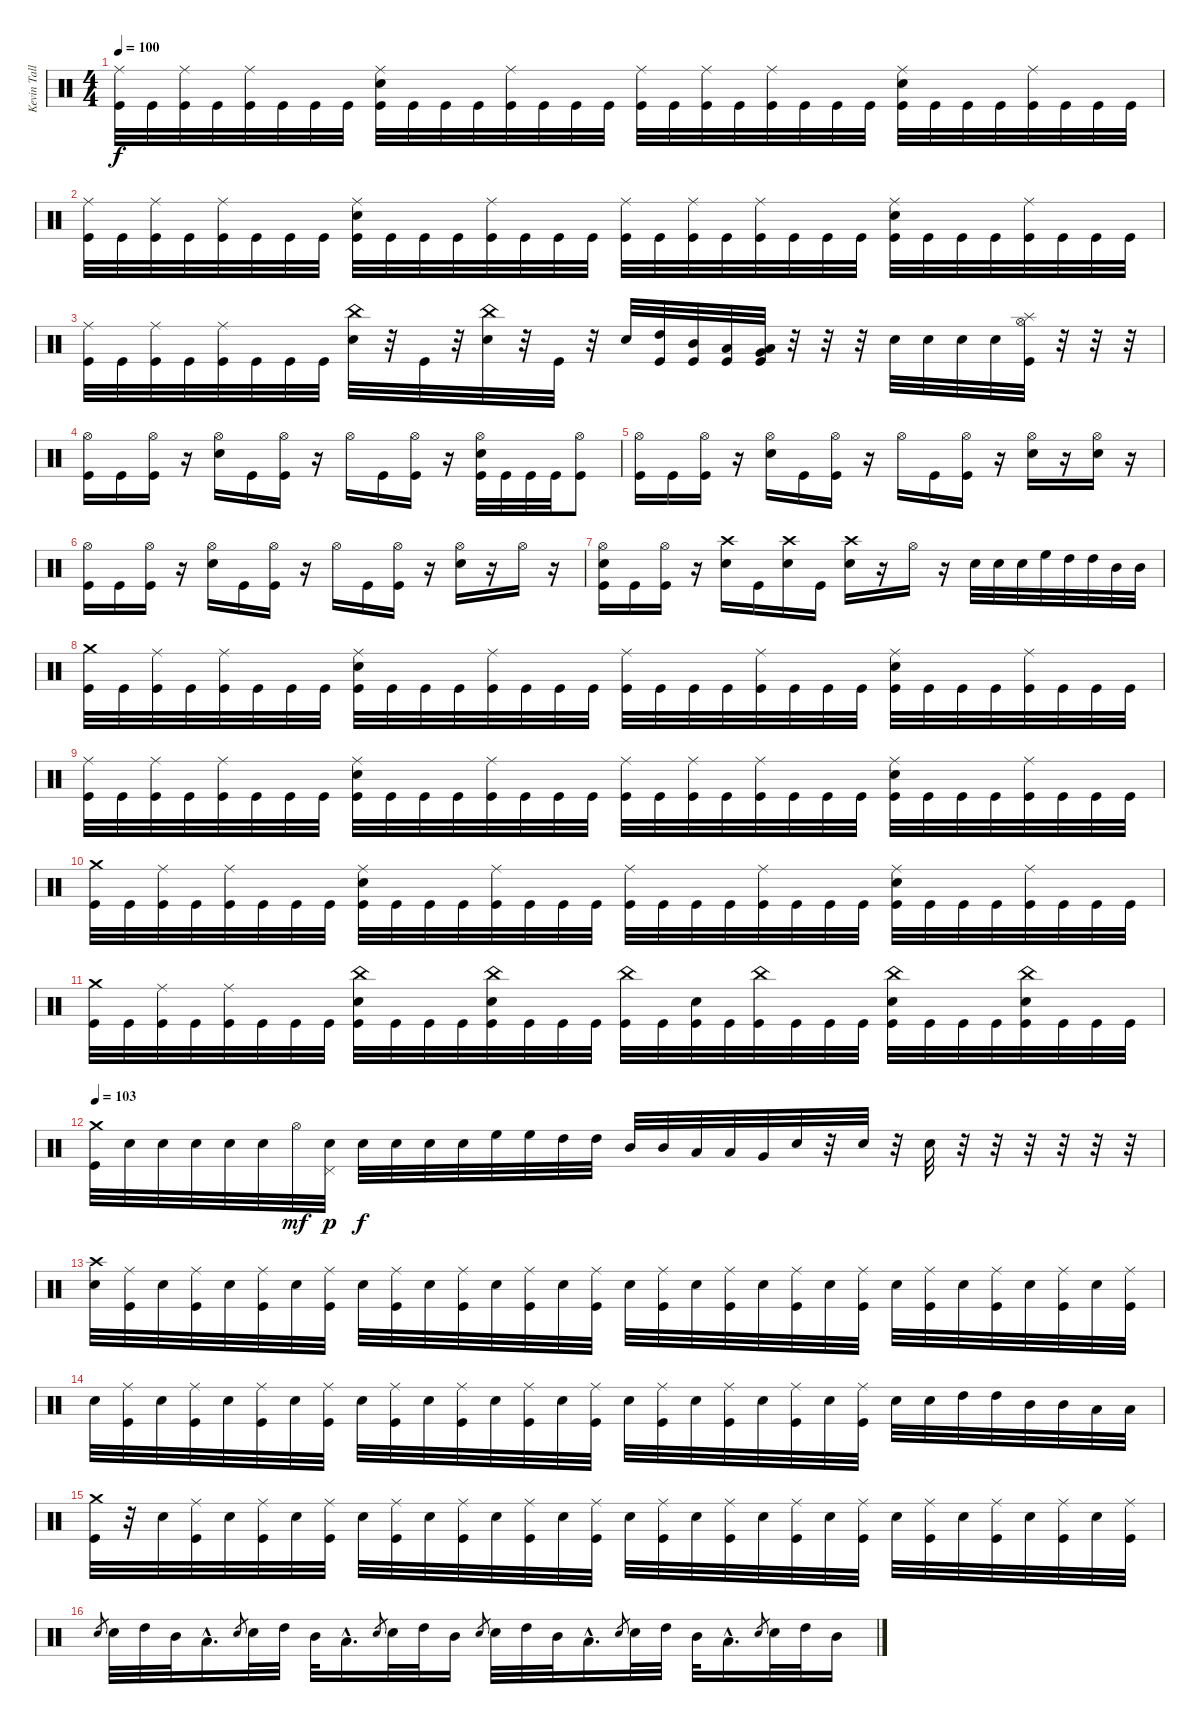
\track ("Kevin Talley" "Kevin Tall") {instrument percussion}
\staff {score}
\articulation defaults
\ts (4 4)
\tempo 100
\clef neutral
\ks c
("Ride (middle)" "Kick (hit)").32{dy f} "Kick (hit)".32 ("Ride (middle)" "Kick (hit)").32 "Kick (hit)".32 ("Ride (middle)" "Kick (hit)").32 "Kick (hit)".32 "Kick (hit)".32 "Kick (hit)".32 ("Ride (middle)" "Electric Snare (hit)" "Kick (hit)").32 "Kick (hit)".32 "Kick (hit)".32 "Kick (hit)".32 ("Ride (middle)" "Kick (hit)").32 "Kick (hit)".32 "Kick (hit)".32 "Kick (hit)".32 ("Ride (middle)" "Kick (hit)").32 "Kick (hit)".32 ("Ride (middle)" "Kick (hit)").32 "Kick (hit)".32 ("Ride (middle)" "Kick (hit)").32 "Kick (hit)".32 "Kick (hit)".32 "Kick (hit)".32 ("Ride (middle)" "Electric Snare (hit)" "Kick (hit)").32 "Kick (hit)".32 "Kick (hit)".32 "Kick (hit)".32 ("Ride (middle)" "Kick (hit)").32 "Kick (hit)".32 "Kick (hit)".32 "Kick (hit)".32 |
("Ride (middle)" "Kick (hit)").32 "Kick (hit)".32 ("Ride (middle)" "Kick (hit)").32 "Kick (hit)".32 ("Ride (middle)" "Kick (hit)").32 "Kick (hit)".32 "Kick (hit)".32 "Kick (hit)".32 ("Ride (middle)" "Electric Snare (hit)" "Kick (hit)").32 "Kick (hit)".32 "Kick (hit)".32 "Kick (hit)".32 ("Ride (middle)" "Kick (hit)").32 "Kick (hit)".32 "Kick (hit)".32 "Kick (hit)".32 ("Ride (middle)" "Kick (hit)").32 "Kick (hit)".32 ("Ride (middle)" "Kick (hit)").32 "Kick (hit)".32 ("Ride (middle)" "Kick (hit)").32 "Kick (hit)".32 "Kick (hit)".32 "Kick (hit)".32 ("Ride (middle)" "Electric Snare (hit)" "Kick (hit)").32 "Kick (hit)".32 "Kick (hit)".32 "Kick (hit)".32 ("Ride (middle)" "Kick (hit)").32 "Kick (hit)".32 "Kick (hit)".32 "Kick (hit)".32 |
("Ride (middle)" "Kick (hit)").32 "Kick (hit)".32 ("Ride (middle)" "Kick (hit)").32 "Kick (hit)".32 ("Ride (middle)" "Kick (hit)").32 "Kick (hit)".32 "Kick (hit)".32 "Kick (hit)".32 ("China (hit)" "Electric Snare (hit)").32 r.32 "Kick (hit)".32 r.32 ("China (hit)" "Electric Snare (hit)").32 r.32 "Kick (hit)".32 r.32 "Electric Snare (hit)".32 ("High Tom (hit)" "Kick (hit)").32 ("Mid Tom (hit)" "Kick (hit)").32 ("Low Tom (hit)" "Kick (hit)").32 ("Low Tom (hit)" "Very Low Tom (hit)" "Kick (hit)").32 r.32 r.32 r.32 "Electric Snare (hit)".32 "Electric Snare (hit)".32 "Electric Snare (hit)".32 "Electric Snare (hit)".32 ("Splash (hit)" "Hi-Hat (open)" "Kick (hit)").32 r.32 r.32 r.32 |
("Hi-Hat (open)" "Kick (hit)").16 "Kick (hit)".16 ("Hi-Hat (open)" "Kick (hit)").16 r.16 ("Hi-Hat (open)" "Electric Snare (hit)").16 "Kick (hit)".16 ("Hi-Hat (open)" "Kick (hit)").16 r.16 "Hi-Hat (open)".16 "Kick (hit)".16 ("Hi-Hat (open)" "Kick (hit)").16 r.16 ("Hi-Hat (open)" "Electric Snare (hit)" "Kick (hit)").32 "Kick (hit)".32 "Kick (hit)".32 "Kick (hit)".32 ("Hi-Hat (open)" "Kick (hit)").8 |
("Hi-Hat (open)" "Kick (hit)").16 "Kick (hit)".16 ("Hi-Hat (open)" "Kick (hit)").16 r.16 ("Hi-Hat (open)" "Electric Snare (hit)").16 "Kick (hit)".16 ("Hi-Hat (open)" "Kick (hit)").16 r.16 "Hi-Hat (open)".16 "Kick (hit)".16 ("Hi-Hat (open)" "Kick (hit)").16 r.16 ("Hi-Hat (open)" "Electric Snare (hit)").16 r.16 ("Hi-Hat (open)" "Electric Snare (hit)").16 r.16 |
("Hi-Hat (open)" "Kick (hit)").16 "Kick (hit)".16 ("Hi-Hat (open)" "Kick (hit)").16 r.16 ("Hi-Hat (open)" "Electric Snare (hit)").16 "Kick (hit)".16 ("Hi-Hat (open)" "Kick (hit)").16 r.16 "Hi-Hat (open)".16 "Kick (hit)".16 ("Hi-Hat (open)" "Kick (hit)").16 r.16 ("Hi-Hat (open)" "Electric Snare (hit)").16 r.16 "Hi-Hat (open)".16 r.16 |
("Hi-Hat (open)" "Electric Snare (hit)" "Kick (hit)").16 "Kick (hit)".16 ("Hi-Hat (open)" "Kick (hit)").16 r.16 ("Crash high (hit)" "Electric Snare (hit)").16 "Kick (hit)".16 ("Crash high (hit)" "Electric Snare (hit)").16 "Kick (hit)".16 ("Crash high (hit)" "Electric Snare (hit)").16 r.16 "Hi-Hat (open)".16 r.16 "Electric Snare (hit)".32 "Electric Snare (hit)".32 "Electric Snare (hit)".32 "High Floor Tom (hit)".32 "High Tom (hit)".32 "High Tom (hit)".32 "Mid Tom (hit)".32 "Mid Tom (hit)".32 |
("Crash medium (hit)" "Kick (hit)").32 "Kick (hit)".32 ("Ride (middle)" "Kick (hit)").32 "Kick (hit)".32 ("Ride (middle)" "Kick (hit)").32 "Kick (hit)".32 "Kick (hit)".32 "Kick (hit)".32 ("Ride (middle)" "Electric Snare (hit)" "Kick (hit)").32 "Kick (hit)".32 "Kick (hit)".32 "Kick (hit)".32 ("Ride (middle)" "Kick (hit)").32 "Kick (hit)".32 "Kick (hit)".32 "Kick (hit)".32 ("Ride (middle)" "Kick (hit)").32 "Kick (hit)".32 "Kick (hit)".32 "Kick (hit)".32 ("Ride (middle)" "Kick (hit)").32 "Kick (hit)".32 "Kick (hit)".32 "Kick (hit)".32 ("Ride (middle)" "Electric Snare (hit)" "Kick (hit)").32 "Kick (hit)".32 "Kick (hit)".32 "Kick (hit)".32 ("Ride (middle)" "Kick (hit)").32 "Kick (hit)".32 "Kick (hit)".32 "Kick (hit)".32 |
("Ride (middle)" "Kick (hit)").32 "Kick (hit)".32 ("Ride (middle)" "Kick (hit)").32 "Kick (hit)".32 ("Ride (middle)" "Kick (hit)").32 "Kick (hit)".32 "Kick (hit)".32 "Kick (hit)".32 ("Ride (middle)" "Electric Snare (hit)" "Kick (hit)").32 "Kick (hit)".32 "Kick (hit)".32 "Kick (hit)".32 ("Ride (middle)" "Kick (hit)").32 "Kick (hit)".32 "Kick (hit)".32 "Kick (hit)".32 ("Ride (middle)" "Kick (hit)").32 "Kick (hit)".32 ("Ride (middle)" "Kick (hit)").32 "Kick (hit)".32 ("Ride (middle)" "Kick (hit)").32 "Kick (hit)".32 "Kick (hit)".32 "Kick (hit)".32 ("Ride (middle)" "Electric Snare (hit)" "Kick (hit)").32 "Kick (hit)".32 "Kick (hit)".32 "Kick (hit)".32 ("Ride (middle)" "Kick (hit)").32 "Kick (hit)".32 "Kick (hit)".32 "Kick (hit)".32 |
("Crash medium (hit)" "Kick (hit)").32 "Kick (hit)".32 ("Ride (middle)" "Kick (hit)").32 "Kick (hit)".32 ("Ride (middle)" "Kick (hit)").32 "Kick (hit)".32 "Kick (hit)".32 "Kick (hit)".32 ("Ride (middle)" "Electric Snare (hit)" "Kick (hit)").32 "Kick (hit)".32 "Kick (hit)".32 "Kick (hit)".32 ("Ride (middle)" "Kick (hit)").32 "Kick (hit)".32 "Kick (hit)".32 "Kick (hit)".32 ("Ride (middle)" "Kick (hit)").32 "Kick (hit)".32 "Kick (hit)".32 "Kick (hit)".32 ("Ride (middle)" "Kick (hit)").32 "Kick (hit)".32 "Kick (hit)".32 "Kick (hit)".32 ("Ride (middle)" "Electric Snare (hit)" "Kick (hit)").32 "Kick (hit)".32 "Kick (hit)".32 "Kick (hit)".32 ("Ride (middle)" "Kick (hit)").32 "Kick (hit)".32 "Kick (hit)".32 "Kick (hit)".32 |
("Crash medium (hit)" "Kick (hit)").32 "Kick (hit)".32 ("Ride (middle)" "Kick (hit)").32 "Kick (hit)".32 ("Ride (middle)" "Kick (hit)").32 "Kick (hit)".32 "Kick (hit)".32 "Kick (hit)".32 ("China (hit)" "Electric Snare (hit)" "Kick (hit)").32 "Kick (hit)".32 "Kick (hit)".32 "Kick (hit)".32 ("China (hit)" "Electric Snare (hit)" "Kick (hit)").32 "Kick (hit)".32 "Kick (hit)".32 "Kick (hit)".32 ("China (hit)" "Kick (hit)").32 "Kick (hit)".32 ("Electric Snare (hit)" "Kick (hit)").32 "Kick (hit)".32 ("China (hit)" "Kick (hit)").32 "Kick (hit)".32 "Kick (hit)".32 "Kick (hit)".32 ("China (hit)" "Electric Snare (hit)" "Kick (hit)").32 "Kick (hit)".32 "Kick (hit)".32 "Kick (hit)".32 ("China (hit)" "Electric Snare (hit)" "Kick (hit)").32 "Kick (hit)".32 "Kick (hit)".32 "Kick (hit)".32 |
\tempo 103
("Crash medium (hit)" "Kick (hit)").32 "Electric Snare (hit)".32 "Electric Snare (hit)".32 "Electric Snare (hit)".32 "Electric Snare (hit)".32 "Electric Snare (hit)".32 "Hi-Hat (open)".32{dy mf} ("Pedal Hi-Hat (hit)" "Electric Snare (hit)").32{dy p} "Electric Snare (hit)".32{dy f} "Electric Snare (hit)".32 "Electric Snare (hit)".32 "Electric Snare (hit)".32 "High Floor Tom (hit)".32 "High Floor Tom (hit)".32 "High Tom (hit)".32 "High Tom (hit)".32 "Mid Tom (hit)".32 "Mid Tom (hit)".32 "Low Tom (hit)".32 "Low Tom (hit)".32 "Very Low Tom (hit)".32 "Electric Snare (hit)".32 r.32 "Electric Snare (hit)".32 r.32 "Electric Snare (hit)".32 r.32 r.32 r.32 r.32 r.32 r.32 |
("Crash high (hit)" "Electric Snare (hit)").32 ("Ride (middle)" "Kick (hit)").32 "Electric Snare (hit)".32 ("Ride (middle)" "Kick (hit)").32 "Electric Snare (hit)".32 ("Ride (middle)" "Kick (hit)").32 "Electric Snare (hit)".32 ("Ride (middle)" "Kick (hit)").32 "Electric Snare (hit)".32 ("Ride (middle)" "Kick (hit)").32 "Electric Snare (hit)".32 ("Ride (middle)" "Kick (hit)").32 "Electric Snare (hit)".32 ("Ride (middle)" "Kick (hit)").32 "Electric Snare (hit)".32 ("Ride (middle)" "Kick (hit)").32 "Electric Snare (hit)".32 ("Ride (middle)" "Kick (hit)").32 "Electric Snare (hit)".32 ("Ride (middle)" "Kick (hit)").32 "Electric Snare (hit)".32 ("Ride (middle)" "Kick (hit)").32 "Electric Snare (hit)".32 ("Ride (middle)" "Kick (hit)").32 "Electric Snare (hit)".32 ("Ride (middle)" "Kick (hit)").32 "Electric Snare (hit)".32 ("Ride (middle)" "Kick (hit)").32 "Electric Snare (hit)".32 ("Ride (middle)" "Kick (hit)").32 "Electric Snare (hit)".32 ("Ride (middle)" "Kick (hit)").32 |
"Electric Snare (hit)".32 ("Ride (middle)" "Kick (hit)").32 "Electric Snare (hit)".32 ("Ride (middle)" "Kick (hit)").32 "Electric Snare (hit)".32 ("Ride (middle)" "Kick (hit)").32 "Electric Snare (hit)".32 ("Ride (middle)" "Kick (hit)").32 "Electric Snare (hit)".32 ("Ride (middle)" "Kick (hit)").32 "Electric Snare (hit)".32 ("Ride (middle)" "Kick (hit)").32 "Electric Snare (hit)".32 ("Ride (middle)" "Kick (hit)").32 "Electric Snare (hit)".32 ("Ride (middle)" "Kick (hit)").32 "Electric Snare (hit)".32 ("Ride (middle)" "Kick (hit)").32 "Electric Snare (hit)".32 ("Ride (middle)" "Kick (hit)").32 "Electric Snare (hit)".32 ("Ride (middle)" "Kick (hit)").32 "Electric Snare (hit)".32 ("Ride (middle)" "Kick (hit)").32 "Electric Snare (hit)".32 "Electric Snare (hit)".32 "High Tom (hit)".32 "High Tom (hit)".32 "Mid Tom (hit)".32 "Mid Tom (hit)".32 "Low Tom (hit)".32 "Low Tom (hit)".32 |
("Crash medium (hit)" "Kick (hit)").32 r.32 "Electric Snare (hit)".32 ("Ride (middle)" "Kick (hit)").32 "Electric Snare (hit)".32 ("Ride (middle)" "Kick (hit)").32 "Electric Snare (hit)".32 ("Ride (middle)" "Kick (hit)").32 "Electric Snare (hit)".32 ("Ride (middle)" "Kick (hit)").32 "Electric Snare (hit)".32 ("Ride (middle)" "Kick (hit)").32 "Electric Snare (hit)".32 ("Ride (middle)" "Kick (hit)").32 "Electric Snare (hit)".32 ("Ride (middle)" "Kick (hit)").32 "Electric Snare (hit)".32 ("Ride (middle)" "Kick (hit)").32 "Electric Snare (hit)".32 ("Ride (middle)" "Kick (hit)").32 "Electric Snare (hit)".32 ("Ride (middle)" "Kick (hit)").32 "Electric Snare (hit)".32 ("Ride (middle)" "Kick (hit)").32 "Electric Snare (hit)".32 ("Ride (middle)" "Kick (hit)").32 "Electric Snare (hit)".32 ("Ride (middle)" "Kick (hit)").32 "Electric Snare (hit)".32 ("Ride (middle)" "Kick (hit)").32 "Electric Snare (hit)".32 ("Ride (middle)" "Kick (hit)").32 |
"Electric Snare (hit)".8{gr} "Electric Snare (hit)".32 "High Tom (hit)".32 "Mid Tom (hit)".32 "Low Tom (hit)"{hac}.16{d} "Electric Snare (hit)".8{gr} "Electric Snare (hit)".32 "High Tom (hit)".32 "Mid Tom (hit)".32 "Low Tom (hit)"{hac}.16{d} "Electric Snare (hit)".8{gr} "Electric Snare (hit)".32 "High Tom (hit)".32 "Mid Tom (hit)".16 "Electric Snare (hit)".8{gr} "Electric Snare (hit)".32 "High Tom (hit)".32 "Mid Tom (hit)".32 "Low Tom (hit)"{hac}.16{d} "Electric Snare (hit)".8{gr} "Electric Snare (hit)".32 "High Tom (hit)".32 "Mid Tom (hit)".32 "Low Tom (hit)"{hac}.16{d} "Electric Snare (hit)".8{gr} "Electric Snare (hit)".32 "High Tom (hit)".32 "Mid Tom (hit)".16
